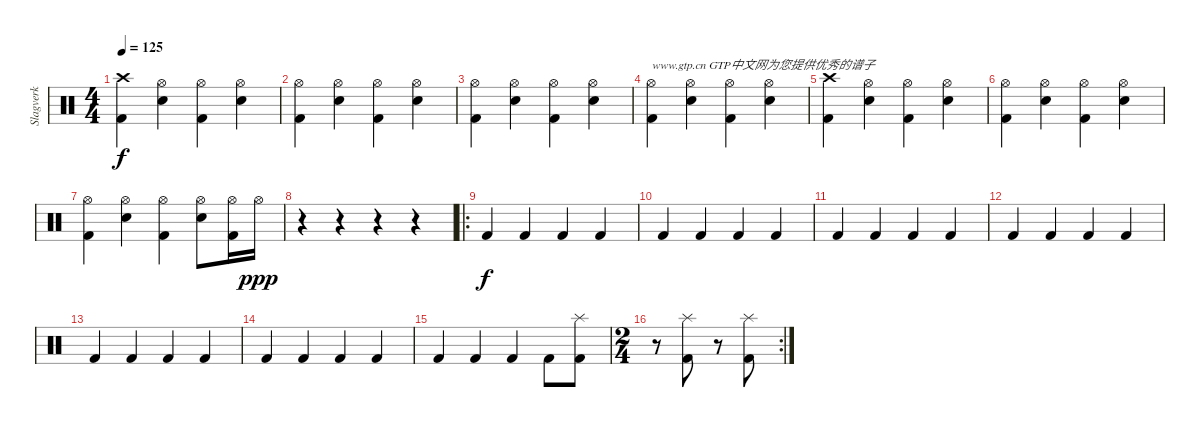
\track ("Slagverk" "Slagverk") {instrument percussion}
\staff {score}
\articulation defaults
\ts (4 4)
\tempo 125
\clef neutral
\ks c
("Crash high (hit)" "Kick (hit) 2").4{dy f} ("Hi-Hat (open)" "Snare (hit) 2").4 ("Hi-Hat (open)" "Kick (hit) 2").4 ("Hi-Hat (open)" "Snare (hit) 2").4 |
("Hi-Hat (open)" "Kick (hit) 2").4 ("Hi-Hat (open)" "Snare (hit) 2").4 ("Hi-Hat (open)" "Kick (hit) 2").4 ("Hi-Hat (open)" "Snare (hit) 2").4 |
("Hi-Hat (open)" "Kick (hit) 2").4 ("Hi-Hat (open)" "Snare (hit) 2").4 ("Hi-Hat (open)" "Kick (hit) 2").4 ("Hi-Hat (open)" "Snare (hit) 2").4 |
("Hi-Hat (open)" "Kick (hit) 2").4{txt "www.gtp.cn GTP中文网为您提供优秀的谱子"} ("Hi-Hat (open)" "Snare (hit) 2").4 ("Hi-Hat (open)" "Kick (hit) 2").4 ("Hi-Hat (open)" "Snare (hit) 2").4 |
("Crash high (hit)" "Kick (hit) 2").4 ("Hi-Hat (open)" "Snare (hit) 2").4 ("Hi-Hat (open)" "Kick (hit) 2").4 ("Hi-Hat (open)" "Snare (hit) 2").4 |
("Hi-Hat (open)" "Kick (hit) 2").4 ("Hi-Hat (open)" "Snare (hit) 2").4 ("Hi-Hat (open)" "Kick (hit) 2").4 ("Hi-Hat (open)" "Snare (hit) 2").4 |
("Hi-Hat (open)" "Kick (hit) 2").4 ("Hi-Hat (open)" "Snare (hit) 2").4 ("Hi-Hat (open)" "Kick (hit) 2").4 ("Hi-Hat (open)" "Snare (hit) 2").8 ("Hi-Hat (open)" "Kick (hit) 2").16 "Hi-Hat (open)".16{dy ppp} |
r.4 r.4 r.4 r.4 |
\ro "Kick (hit) 2".4{dy f} "Kick (hit) 2".4 "Kick (hit) 2".4 "Kick (hit) 2".4
|
"Kick (hit) 2".4 "Kick (hit) 2".4 "Kick (hit) 2".4 "Kick (hit) 2".4 |
"Kick (hit) 2".4 "Kick (hit) 2".4 "Kick (hit) 2".4 "Kick (hit) 2".4 |
"Kick (hit) 2".4 "Kick (hit) 2".4 "Kick (hit) 2".4 "Kick (hit) 2".4 |
"Kick (hit) 2".4 "Kick (hit) 2".4 "Kick (hit) 2".4 "Kick (hit) 2".4 |
"Kick (hit) 2".4 "Kick (hit) 2".4 "Kick (hit) 2".4 "Kick (hit) 2".4 |
"Kick (hit) 2".4 "Kick (hit) 2".4 "Kick (hit) 2".4 "Kick (hit) 2".8 ("Splash (hit)" "Kick (hit) 2").8 |
\rc 2
\ts (2 4)
r.8 ("Splash (hit)" "Kick (hit) 2").8 r.8 ("Splash (hit)" "Kick (hit) 2").8
